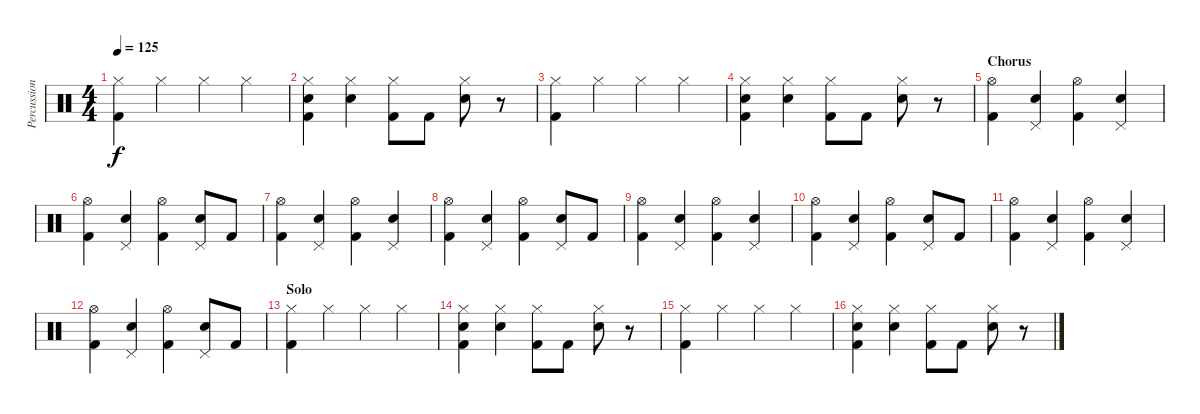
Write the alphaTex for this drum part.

\track ("Percussion" "Percussion") {instrument percussion}
\staff {score}
\articulation defaults
\ts (4 4)
\tempo 125
\clef neutral
\ks c
("Hi-Hat (closed)" "Kick (hit) 2").4{dy f} "Hi-Hat (closed)".4 "Hi-Hat (closed)".4 "Hi-Hat (closed)".4 |
("Hi-Hat (closed)" "Electric Snare (hit)" "Kick (hit) 2").4 ("Hi-Hat (closed)" "Electric Snare (hit)").4 ("Hi-Hat (closed)" "Kick (hit) 2").8 "Kick (hit) 2".8 ("Hi-Hat (closed)" "Electric Snare (hit)").8 r.8 |
("Hi-Hat (closed)" "Kick (hit) 2").4 "Hi-Hat (closed)".4 "Hi-Hat (closed)".4 "Hi-Hat (closed)".4 |
("Hi-Hat (closed)" "Electric Snare (hit)" "Kick (hit) 2").4 ("Hi-Hat (closed)" "Electric Snare (hit)").4 ("Hi-Hat (closed)" "Kick (hit) 2").8 "Kick (hit) 2".8 ("Hi-Hat (closed)" "Electric Snare (hit)").8 r.8 |
\section ("" "Chorus")
("Hi-Hat (open)" "Kick (hit) 2").4 ("Pedal Hi-Hat (hit)" "Electric Snare (hit)").4 ("Hi-Hat (open)" "Kick (hit) 2").4 ("Pedal Hi-Hat (hit)" "Electric Snare (hit)").4 |
("Hi-Hat (open)" "Kick (hit) 2").4 ("Pedal Hi-Hat (hit)" "Electric Snare (hit)").4 ("Hi-Hat (open)" "Kick (hit) 2").4 ("Pedal Hi-Hat (hit)" "Electric Snare (hit)").8 "Kick (hit) 2".8 |
("Hi-Hat (open)" "Kick (hit) 2").4 ("Pedal Hi-Hat (hit)" "Electric Snare (hit)").4 ("Hi-Hat (open)" "Kick (hit) 2").4 ("Pedal Hi-Hat (hit)" "Electric Snare (hit)").4 |
("Hi-Hat (open)" "Kick (hit) 2").4 ("Pedal Hi-Hat (hit)" "Electric Snare (hit)").4 ("Hi-Hat (open)" "Kick (hit) 2").4 ("Pedal Hi-Hat (hit)" "Electric Snare (hit)").8 "Kick (hit) 2".8 |
("Hi-Hat (open)" "Kick (hit) 2").4 ("Pedal Hi-Hat (hit)" "Electric Snare (hit)").4 ("Hi-Hat (open)" "Kick (hit) 2").4 ("Pedal Hi-Hat (hit)" "Electric Snare (hit)").4 |
("Hi-Hat (open)" "Kick (hit) 2").4 ("Pedal Hi-Hat (hit)" "Electric Snare (hit)").4 ("Hi-Hat (open)" "Kick (hit) 2").4 ("Pedal Hi-Hat (hit)" "Electric Snare (hit)").8 "Kick (hit) 2".8 |
("Hi-Hat (open)" "Kick (hit) 2").4 ("Pedal Hi-Hat (hit)" "Electric Snare (hit)").4 ("Hi-Hat (open)" "Kick (hit) 2").4 ("Pedal Hi-Hat (hit)" "Electric Snare (hit)").4 |
("Hi-Hat (open)" "Kick (hit) 2").4 ("Pedal Hi-Hat (hit)" "Electric Snare (hit)").4 ("Hi-Hat (open)" "Kick (hit) 2").4 ("Pedal Hi-Hat (hit)" "Electric Snare (hit)").8 "Kick (hit) 2".8 |
\section ("" "Solo")
("Hi-Hat (closed)" "Kick (hit) 2").4 "Hi-Hat (closed)".4 "Hi-Hat (closed)".4 "Hi-Hat (closed)".4 |
("Hi-Hat (closed)" "Electric Snare (hit)" "Kick (hit) 2").4 ("Hi-Hat (closed)" "Electric Snare (hit)").4 ("Hi-Hat (closed)" "Kick (hit) 2").8 "Kick (hit) 2".8 ("Hi-Hat (closed)" "Electric Snare (hit)").8 r.8 |
("Hi-Hat (closed)" "Kick (hit) 2").4 "Hi-Hat (closed)".4 "Hi-Hat (closed)".4 "Hi-Hat (closed)".4 |
("Hi-Hat (closed)" "Electric Snare (hit)" "Kick (hit) 2").4 ("Hi-Hat (closed)" "Electric Snare (hit)").4 ("Hi-Hat (closed)" "Kick (hit) 2").8 "Kick (hit) 2".8 ("Hi-Hat (closed)" "Electric Snare (hit)").8 r.8
